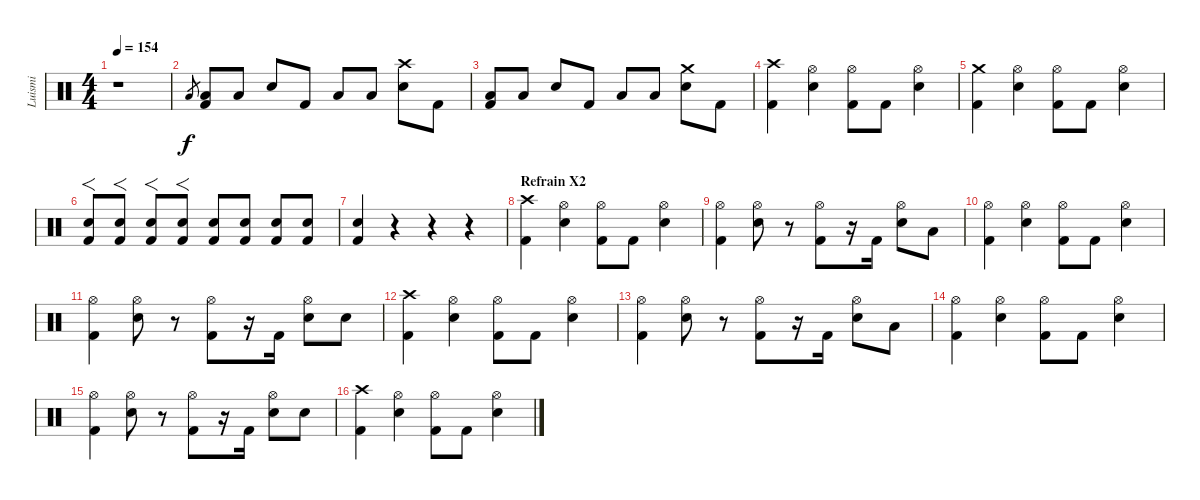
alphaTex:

\track ("Luismi" "Luismi") {instrument percussion}
\staff {score}
\articulation defaults
\ts (4 4)
\tempo 154
\clef neutral
\ks c
r.1{dy f} |
"Low Floor Tom (hit)".8{gr} ("Low Floor Tom (hit)" "Kick (hit) 2").8 "Low Floor Tom (hit)".8 "Electric Snare (hit)".8 "Kick (hit) 2".8 "Low Floor Tom (hit)".8 "Low Floor Tom (hit)".8 ("Crash high (hit)" "Electric Snare (hit)").8 "Kick (hit) 2".8 |
("Low Floor Tom (hit)" "Kick (hit) 2").8 "Low Floor Tom (hit)".8 "Electric Snare (hit)".8 "Kick (hit) 2".8 "Low Floor Tom (hit)".8 "Low Floor Tom (hit)".8 ("Crash medium (hit)" "Electric Snare (hit)").8 "Kick (hit) 2".8 |
("Crash high (hit)" "Kick (hit) 2").4 ("Hi-Hat (open)" "Electric Snare (hit)").4 ("Hi-Hat (open)" "Kick (hit) 2").8 "Kick (hit) 2".8 ("Hi-Hat (open)" "Electric Snare (hit)").4 |
("Crash medium (hit)" "Kick (hit) 2").4 ("Hi-Hat (open)" "Electric Snare (hit)").4 ("Hi-Hat (open)" "Kick (hit) 2").8 "Kick (hit) 2".8 ("Hi-Hat (open)" "Electric Snare (hit)").4 |
("Electric Snare (hit)" "Kick (hit) 2").8{f} ("Electric Snare (hit)" "Kick (hit) 2").8{f} ("Electric Snare (hit)" "Kick (hit) 2").8{f} ("Electric Snare (hit)" "Kick (hit) 2").8{f} ("Electric Snare (hit)" "Kick (hit) 2").8 ("Electric Snare (hit)" "Kick (hit) 2").8 ("Electric Snare (hit)" "Kick (hit) 2").8 ("Electric Snare (hit)" "Kick (hit) 2").8 |
("Electric Snare (hit)" "Kick (hit) 2").4 r.4 r.4 r.4 |
\section ("" "Refrain X2")
("Crash high (hit)" "Kick (hit) 2").4 ("Hi-Hat (open)" "Electric Snare (hit)").4 ("Hi-Hat (open)" "Kick (hit) 2").8 "Kick (hit) 2".8 ("Hi-Hat (open)" "Electric Snare (hit)").4 |
("Hi-Hat (open)" "Kick (hit) 2").4 ("Hi-Hat (open)" "Electric Snare (hit)").8 r.8 ("Hi-Hat (open)" "Kick (hit) 2").8 r.16 "Kick (hit) 2".16 ("Hi-Hat (open)" "Electric Snare (hit)").8 "Low Floor Tom (hit)".8 |
("Hi-Hat (open)" "Kick (hit) 2").4 ("Hi-Hat (open)" "Electric Snare (hit)").4 ("Hi-Hat (open)" "Kick (hit) 2").8 "Kick (hit) 2".8 ("Hi-Hat (open)" "Electric Snare (hit)").4 |
("Hi-Hat (open)" "Kick (hit) 2").4 ("Hi-Hat (open)" "Electric Snare (hit)").8 r.8 ("Hi-Hat (open)" "Kick (hit) 2").8 r.16 "Kick (hit) 2".16 ("Hi-Hat (open)" "Electric Snare (hit)").8 "Electric Snare (hit)".8 |
("Crash high (hit)" "Kick (hit) 2").4 ("Hi-Hat (open)" "Electric Snare (hit)").4 ("Hi-Hat (open)" "Kick (hit) 2").8 "Kick (hit) 2".8 ("Hi-Hat (open)" "Electric Snare (hit)").4 |
("Hi-Hat (open)" "Kick (hit) 2").4 ("Hi-Hat (open)" "Electric Snare (hit)").8 r.8 ("Hi-Hat (open)" "Kick (hit) 2").8 r.16 "Kick (hit) 2".16 ("Hi-Hat (open)" "Electric Snare (hit)").8 "Low Floor Tom (hit)".8 |
("Hi-Hat (open)" "Kick (hit) 2").4 ("Hi-Hat (open)" "Electric Snare (hit)").4 ("Hi-Hat (open)" "Kick (hit) 2").8 "Kick (hit) 2".8 ("Hi-Hat (open)" "Electric Snare (hit)").4 |
("Hi-Hat (open)" "Kick (hit) 2").4 ("Hi-Hat (open)" "Electric Snare (hit)").8 r.8 ("Hi-Hat (open)" "Kick (hit) 2").8 r.16 "Kick (hit) 2".16 ("Hi-Hat (open)" "Electric Snare (hit)").8 "Electric Snare (hit)".8 |
("Crash high (hit)" "Kick (hit) 2").4 ("Hi-Hat (open)" "Electric Snare (hit)").4 ("Hi-Hat (open)" "Kick (hit) 2").8 "Kick (hit) 2".8 ("Hi-Hat (open)" "Electric Snare (hit)").4
